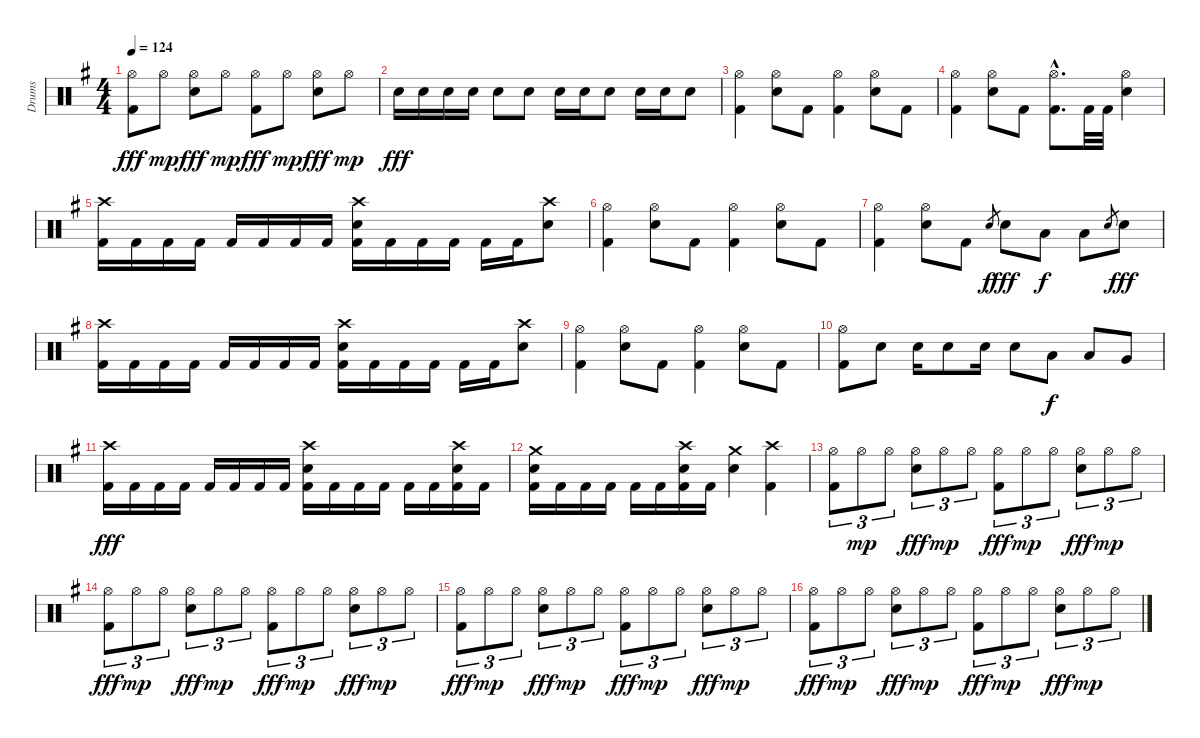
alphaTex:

\track ("Drums" "Drums") {instrument percussion}
\staff {score}
\articulation defaults
\ts (4 4)
\tempo 124
\clef neutral
\ks g
("Hi-Hat (open)" "Kick (hit) 2").8{dy fff} "Hi-Hat (open)".8{dy mp} ("Hi-Hat (open)" "Electric Snare (hit)").8{dy fff} "Hi-Hat (open)".8{dy mp} ("Hi-Hat (open)" "Kick (hit) 2").8{dy fff} "Hi-Hat (open)".8{dy mp} ("Hi-Hat (open)" "Electric Snare (hit)").8{dy fff} "Hi-Hat (open)".8{dy mp} |
"Electric Snare (hit)".16{dy fff} "Electric Snare (hit)".16 "Electric Snare (hit)".16 "Electric Snare (hit)".16 "Electric Snare (hit)".8 "Electric Snare (hit)".8 "Electric Snare (hit)".16 "Electric Snare (hit)".16 "Electric Snare (hit)".8 "Electric Snare (hit)".16 "Electric Snare (hit)".16 "Electric Snare (hit)".8 |
("Hi-Hat (open)" "Kick (hit) 2").4 ("Hi-Hat (open)" "Electric Snare (hit)").8 "Kick (hit) 2".8 ("Hi-Hat (open)" "Kick (hit) 2").4 ("Hi-Hat (open)" "Electric Snare (hit)").8 "Kick (hit) 2".8 |
("Hi-Hat (open)" "Kick (hit) 2").4 ("Hi-Hat (open)" "Electric Snare (hit)").8 "Kick (hit) 2".8 ("Hi-Hat (open)"{hac} "Kick (hit) 2"{hac}).8{d} "Kick (hit) 2".32 "Kick (hit) 2".32 ("Hi-Hat (open)" "Electric Snare (hit)").4 |
("Crash high (hit)" "Kick (hit) 2").16 "Kick (hit) 2".16 "Kick (hit) 2".16 "Kick (hit) 2".16 "Kick (hit) 2".16 "Kick (hit) 2".16 "Kick (hit) 2".16 "Kick (hit) 2".16 ("Crash high (hit)" "Electric Snare (hit)" "Kick (hit) 2").16 "Kick (hit) 2".16 "Kick (hit) 2".16 "Kick (hit) 2".16 "Kick (hit) 2".16 "Kick (hit) 2".16 ("Crash high (hit)" "Electric Snare (hit)").8 |
("Hi-Hat (open)" "Kick (hit) 2").4 ("Hi-Hat (open)" "Electric Snare (hit)").8 "Kick (hit) 2".8 ("Hi-Hat (open)" "Kick (hit) 2").4 ("Hi-Hat (open)" "Electric Snare (hit)").8 "Kick (hit) 2".8 |
("Hi-Hat (open)" "Kick (hit) 2").4 ("Hi-Hat (open)" "Electric Snare (hit)").8 "Kick (hit) 2".8 "Electric Snare (hit)".8{gr dy f} "Electric Snare (hit)".8{dy fff} "Low Tom (hit)".8{dy f} "Low Tom (hit)".8 "Electric Snare (hit)".8{gr} "Electric Snare (hit)".8{dy fff} |
("Crash high (hit)" "Kick (hit) 2").16 "Kick (hit) 2".16 "Kick (hit) 2".16 "Kick (hit) 2".16 "Kick (hit) 2".16 "Kick (hit) 2".16 "Kick (hit) 2".16 "Kick (hit) 2".16 ("Crash high (hit)" "Electric Snare (hit)" "Kick (hit) 2").16 "Kick (hit) 2".16 "Kick (hit) 2".16 "Kick (hit) 2".16 "Kick (hit) 2".16 "Kick (hit) 2".16 ("Crash high (hit)" "Electric Snare (hit)").8 |
("Hi-Hat (open)" "Kick (hit) 2").4 ("Hi-Hat (open)" "Electric Snare (hit)").8 "Kick (hit) 2".8 ("Hi-Hat (open)" "Kick (hit) 2").4 ("Hi-Hat (open)" "Electric Snare (hit)").8 "Kick (hit) 2".8 |
("Hi-Hat (open)" "Kick (hit) 2").8 "Electric Snare (hit)".8 "Electric Snare (hit)".16 "Electric Snare (hit)".8 "Electric Snare (hit)".16 "Electric Snare (hit)".8 "Low Tom (hit)".8{dy f} "Low Tom (hit)".8 "Very Low Tom (hit)".8 |
("Crash high (hit)" "Kick (hit) 2").16{dy fff} "Kick (hit) 2".16 "Kick (hit) 2".16 "Kick (hit) 2".16 "Kick (hit) 2".16 "Kick (hit) 2".16 "Kick (hit) 2".16 "Kick (hit) 2".16 ("Crash high (hit)" "Electric Snare (hit)" "Kick (hit) 2").16 "Kick (hit) 2".16 "Kick (hit) 2".16 "Kick (hit) 2".16 "Kick (hit) 2".16 "Kick (hit) 2".16 ("Crash high (hit)" "Electric Snare (hit)" "Kick (hit) 2").16 "Kick (hit) 2".16 |
("Crash medium (hit)" "Electric Snare (hit)" "Kick (hit) 2").16 "Kick (hit) 2".16 "Kick (hit) 2".16 "Kick (hit) 2".16 "Kick (hit) 2".16 "Kick (hit) 2".16 ("Crash high (hit)" "Electric Snare (hit)" "Kick (hit) 2").16 "Kick (hit) 2".16 ("Crash medium (hit)" "Electric Snare (hit)").4 ("Crash high (hit)" "Kick (hit) 2").4 |
("Hi-Hat (open)" "Kick (hit) 2").8{tu (3 2)} "Hi-Hat (open)".8{tu (3 2) dy mp} "Hi-Hat (open)".8{tu (3 2)} ("Hi-Hat (open)" "Electric Snare (hit)").8{tu (3 2) dy fff} "Hi-Hat (open)".8{tu (3 2) dy mp} "Hi-Hat (open)".8{tu (3 2)} ("Hi-Hat (open)" "Kick (hit) 2").8{tu (3 2) dy fff} "Hi-Hat (open)".8{tu (3 2) dy mp} "Hi-Hat (open)".8{tu (3 2)} ("Hi-Hat (open)" "Electric Snare (hit)").8{tu (3 2) dy fff} "Hi-Hat (open)".8{tu (3 2) dy mp} "Hi-Hat (open)".8{tu (3 2)} |
("Hi-Hat (open)" "Kick (hit) 2").8{tu (3 2) dy fff} "Hi-Hat (open)".8{tu (3 2) dy mp} "Hi-Hat (open)".8{tu (3 2)} ("Hi-Hat (open)" "Electric Snare (hit)").8{tu (3 2) dy fff} "Hi-Hat (open)".8{tu (3 2) dy mp} "Hi-Hat (open)".8{tu (3 2)} ("Hi-Hat (open)" "Kick (hit) 2").8{tu (3 2) dy fff} "Hi-Hat (open)".8{tu (3 2) dy mp} "Hi-Hat (open)".8{tu (3 2)} ("Hi-Hat (open)" "Electric Snare (hit)").8{tu (3 2) dy fff} "Hi-Hat (open)".8{tu (3 2) dy mp} "Hi-Hat (open)".8{tu (3 2)} |
("Hi-Hat (open)" "Kick (hit) 2").8{tu (3 2) dy fff} "Hi-Hat (open)".8{tu (3 2) dy mp} "Hi-Hat (open)".8{tu (3 2)} ("Hi-Hat (open)" "Electric Snare (hit)").8{tu (3 2) dy fff} "Hi-Hat (open)".8{tu (3 2) dy mp} "Hi-Hat (open)".8{tu (3 2)} ("Hi-Hat (open)" "Kick (hit) 2").8{tu (3 2) dy fff} "Hi-Hat (open)".8{tu (3 2) dy mp} "Hi-Hat (open)".8{tu (3 2)} ("Hi-Hat (open)" "Electric Snare (hit)").8{tu (3 2) dy fff} "Hi-Hat (open)".8{tu (3 2) dy mp} "Hi-Hat (open)".8{tu (3 2)} |
("Hi-Hat (open)" "Kick (hit) 2").8{tu (3 2) dy fff} "Hi-Hat (open)".8{tu (3 2) dy mp} "Hi-Hat (open)".8{tu (3 2)} ("Hi-Hat (open)" "Electric Snare (hit)").8{tu (3 2) dy fff} "Hi-Hat (open)".8{tu (3 2) dy mp} "Hi-Hat (open)".8{tu (3 2)} ("Hi-Hat (open)" "Kick (hit) 2").8{tu (3 2) dy fff} "Hi-Hat (open)".8{tu (3 2) dy mp} "Hi-Hat (open)".8{tu (3 2)} ("Hi-Hat (open)" "Electric Snare (hit)").8{tu (3 2) dy fff} "Hi-Hat (open)".8{tu (3 2) dy mp} "Hi-Hat (open)".8{tu (3 2)}
